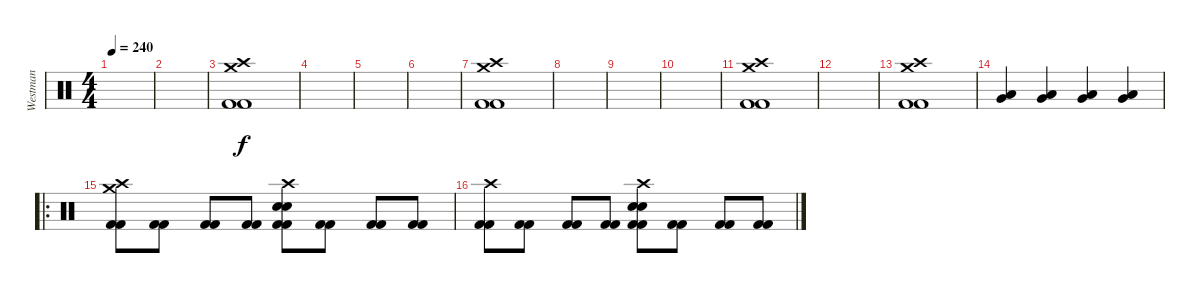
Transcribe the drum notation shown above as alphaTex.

\track ("Westman" "Westman") {instrument percussion}
\staff {score}
\articulation defaults
\ts (4 4)
\tempo 240
\clef neutral
\ks c
|
|
("Crash medium (hit)" "Crash high (hit)" "Kick (hit) 2" "Kick (hit) 2").1 |
|
|
|
("Kick (hit) 2" "Kick (hit) 2" "Crash high (hit)" "Crash medium (hit)").1 |
|
|
|
("Crash medium (hit)" "Crash high (hit)" "Kick (hit) 2" "Kick (hit) 2").1 |
|
("Kick (hit) 2" "Kick (hit) 2" "Crash high (hit)" "Crash medium (hit)").1 |
("Very Low Tom (hit)" "Low Tom (hit)").4 ("Very Low Tom (hit)" "Low Tom (hit)").4 ("Very Low Tom (hit)" "Low Tom (hit)").4 ("Very Low Tom (hit)" "Low Tom (hit)").4 |
\ro
("Kick (hit) 2" "Kick (hit) 2" "Crash high (hit)" "Crash medium (hit)").8 ("Kick (hit) 2" "Kick (hit) 2").8 ("Kick (hit) 2" "Kick (hit) 2").8 ("Kick (hit) 2" "Kick (hit) 2").8 ("Kick (hit) 2" "Kick (hit) 2" "Electric Snare (hit)" "Crash high (hit)" "Snare (hit) 2").8 ("Kick (hit) 2" "Kick (hit) 2").8 ("Kick (hit) 2" "Kick (hit) 2").8 ("Kick (hit) 2" "Kick (hit) 2").8 |
("Kick (hit) 2" "Kick (hit) 2" "Crash high (hit)").8 ("Kick (hit) 2" "Kick (hit) 2").8 ("Kick (hit) 2" "Kick (hit) 2").8 ("Kick (hit) 2" "Kick (hit) 2").8 ("Kick (hit) 2" "Kick (hit) 2" "Electric Snare (hit)" "Crash high (hit)" "Snare (hit) 2").8 ("Kick (hit) 2" "Kick (hit) 2").8 ("Kick (hit) 2" "Kick (hit) 2").8 ("Kick (hit) 2" "Kick (hit) 2").8
